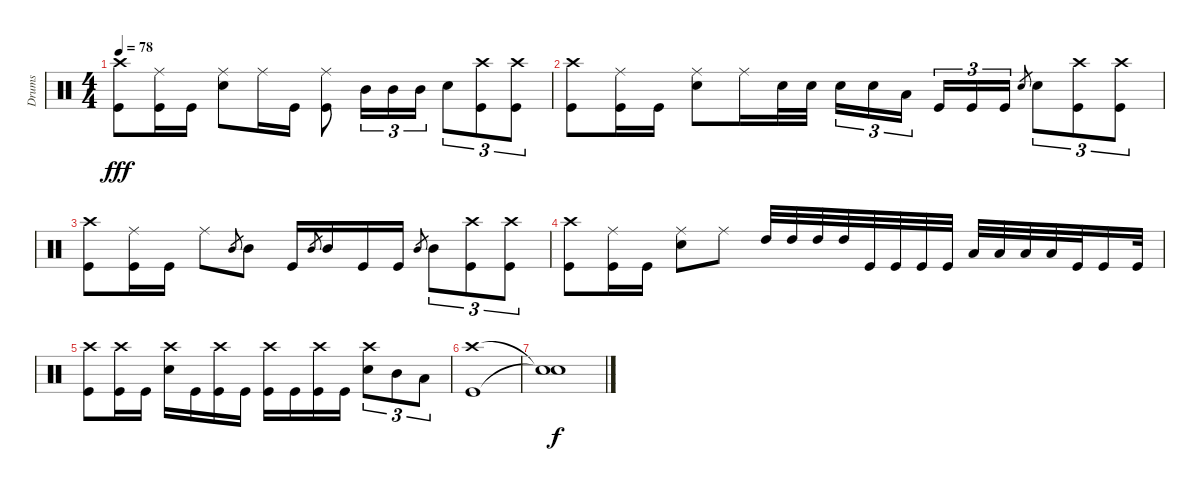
\track ("Drums" "Drums") {instrument percussion}
\staff {score}
\articulation defaults
\ts (4 4)
\tempo 78
\clef neutral
\ks c
("Crash high (hit)" "Kick (hit)").8{dy fff} ("Ride (middle)" "Kick (hit)").16 "Kick (hit)".16 ("Ride (middle)" "Snare (hit) 2").8 "Ride (middle)".16 "Kick (hit)".16 ("Ride (middle)" "Kick (hit)").8 "Mid Tom (hit)".16{tu (3 2)} "Mid Tom (hit)".16{tu (3 2)} "Mid Tom (hit)".16{tu (3 2)} "Snare (hit) 2".8{tu (3 2)} ("Crash high (hit)" "Kick (hit)").8{tu (3 2)} ("Crash high (hit)" "Kick (hit)").8{tu (3 2)} |
("Crash high (hit)" "Kick (hit)").8 ("Ride (middle)" "Kick (hit)").16 "Kick (hit)".16 ("Ride (middle)" "Snare (hit) 2").8 "Ride (middle)".16 "Snare (hit) 2".32 "Snare (hit) 2".32 "Snare (hit) 2".16{tu (3 2)} "Snare (hit) 2".16{tu (3 2)} "Low Tom (hit)".16{tu (3 2)} "Kick (hit)".16{tu (3 2)} "Kick (hit)".16{tu (3 2)} "Kick (hit)".16{tu (3 2)} "Snare (hit) 2".8{gr} "Snare (hit) 2".8{tu (3 2)} ("Crash high (hit)" "Kick (hit)").8{tu (3 2)} ("Crash high (hit)" "Kick (hit)").8{tu (3 2)} |
("Crash high (hit)" "Kick (hit)").8 ("Ride (middle)" "Kick (hit)").16 "Kick (hit)".16 "Ride (middle)".8 "Mid Tom (hit)".8{gr} "Mid Tom (hit)".8 "Kick (hit)".16 "Mid Tom (hit)".8{gr} "Mid Tom (hit)".16 "Kick (hit)".16 "Kick (hit)".16 "Mid Tom (hit)".8{gr} "Mid Tom (hit)".8{tu (3 2)} ("Crash high (hit)" "Kick (hit)").8{tu (3 2)} ("Crash high (hit)" "Kick (hit)").8{tu (3 2)} |
("Crash high (hit)" "Kick (hit)").8 ("Ride (middle)" "Kick (hit)").16 "Kick (hit)".16 ("Ride (middle)" "Snare (hit) 2").8 "Ride (middle)".8 "High Tom (hit)".32 "High Tom (hit)".32 "High Tom (hit)".32 "High Tom (hit)".32 "Kick (hit)".32 "Kick (hit)".32 "Kick (hit)".32 "Kick (hit)".32 "Low Tom (hit)".32 "Low Tom (hit)".32 "Low Tom (hit)".32 "Low Tom (hit)".32 "Kick (hit)".32 "Kick (hit)".16 "Kick (hit)".32 |
("Crash high (hit)" "Kick (hit)").8 ("Crash high (hit)" "Kick (hit)").16 "Kick (hit)".16 ("Crash high (hit)" "Snare (hit) 2").16 "Kick (hit)".16 ("Crash high (hit)" "Kick (hit)").16 "Kick (hit)".16 ("Crash high (hit)" "Kick (hit)").16 "Kick (hit)".16 ("Crash high (hit)" "Kick (hit)").16 "Kick (hit)".16 ("Crash high (hit)" "Snare (hit) 2").8{tu (3 2)} "Mid Tom (hit)".8{tu (3 2)} "Low Tom (hit)".8{tu (3 2)} |
("Crash high (hit)" "Kick (hit)").1 |
("Snare (hit)"{t} "Snare (hit)"{t}).1{dy f}
